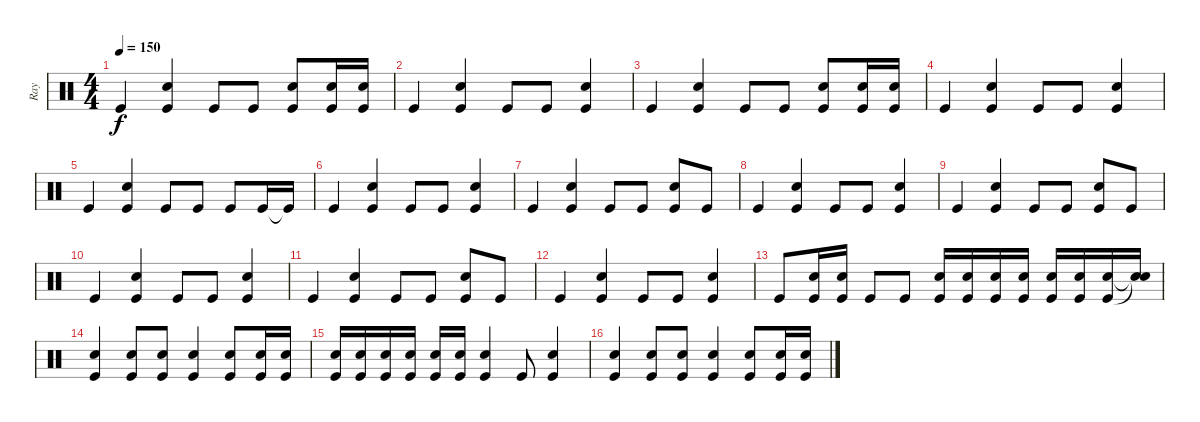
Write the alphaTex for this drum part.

\track ("Ray" "Ray") {instrument percussion}
\staff {score}
\articulation defaults
\ts (4 4)
\tempo 150
\clef neutral
\ks c "Kick (hit)".4{dy f}
("Kick (hit)" "Electric Snare (hit)").4 "Kick (hit)".8 "Kick (hit)".8 ("Kick (hit)" "Electric Snare (hit)").8 ("Kick (hit)" "Electric Snare (hit)").16 ("Kick (hit)" "Electric Snare (hit)").16 |
"Kick (hit)".4 ("Kick (hit)" "Electric Snare (hit)").4 "Kick (hit)".8 "Kick (hit)".8 ("Kick (hit)" "Electric Snare (hit)").4 |
"Kick (hit)".4 ("Kick (hit)" "Electric Snare (hit)").4 "Kick (hit)".8 "Kick (hit)".8 ("Kick (hit)" "Electric Snare (hit)").8 ("Kick (hit)" "Electric Snare (hit)").16 ("Kick (hit)" "Electric Snare (hit)").16 |
"Kick (hit)".4 ("Kick (hit)" "Electric Snare (hit)").4 "Kick (hit)".8 "Kick (hit)".8 ("Kick (hit)" "Electric Snare (hit)").4 |
"Kick (hit)".4 ("Kick (hit)" "Electric Snare (hit)").4 "Kick (hit)".8 "Kick (hit)".8 "Kick (hit)".8 "Kick (hit)".16 "Kick (hit)"{t}.16 |
"Kick (hit)".4 ("Kick (hit)" "Electric Snare (hit)").4 "Kick (hit)".8 "Kick (hit)".8 ("Kick (hit)" "Electric Snare (hit)").4 |
"Kick (hit)".4 ("Kick (hit)" "Electric Snare (hit)").4 "Kick (hit)".8 "Kick (hit)".8 ("Kick (hit)" "Electric Snare (hit)").8 "Kick (hit)".8 |
"Kick (hit)".4 ("Kick (hit)" "Electric Snare (hit)").4 "Kick (hit)".8 "Kick (hit)".8 ("Kick (hit)" "Electric Snare (hit)").4 |
"Kick (hit)".4 ("Kick (hit)" "Electric Snare (hit)").4 "Kick (hit)".8 "Kick (hit)".8 ("Kick (hit)" "Electric Snare (hit)").8 "Kick (hit)".8 |
"Kick (hit)".4 ("Kick (hit)" "Electric Snare (hit)").4 "Kick (hit)".8 "Kick (hit)".8 ("Kick (hit)" "Electric Snare (hit)").4 |
"Kick (hit)".4 ("Kick (hit)" "Electric Snare (hit)").4 "Kick (hit)".8 "Kick (hit)".8 ("Kick (hit)" "Electric Snare (hit)").8 "Kick (hit)".8 |
"Kick (hit)".4 ("Kick (hit)" "Electric Snare (hit)").4 "Kick (hit)".8 "Kick (hit)".8 ("Kick (hit)" "Electric Snare (hit)").4 |
"Kick (hit)".8 ("Kick (hit)" "Electric Snare (hit)").16 ("Kick (hit)" "Electric Snare (hit)").16 "Kick (hit)".8 "Kick (hit)".8 ("Kick (hit)" "Electric Snare (hit)").16 ("Kick (hit)" "Electric Snare (hit)").16 ("Kick (hit)" "Electric Snare (hit)").16 ("Kick (hit)" "Electric Snare (hit)").16 ("Kick (hit)" "Electric Snare (hit)").16 ("Kick (hit)" "Electric Snare (hit)").16 ("Kick (hit)" "Electric Snare (hit)").16 ("Snare (hit)"{t} "Snare (hit)"{t}).16 |
("Kick (hit)" "Electric Snare (hit)").4 ("Kick (hit)" "Electric Snare (hit)").8 ("Kick (hit)" "Electric Snare (hit)").8 ("Kick (hit)" "Electric Snare (hit)").4 ("Kick (hit)" "Electric Snare (hit)").8 ("Kick (hit)" "Electric Snare (hit)").16 ("Kick (hit)" "Electric Snare (hit)").16 |
("Kick (hit)" "Electric Snare (hit)").16 ("Kick (hit)" "Electric Snare (hit)").16 ("Kick (hit)" "Electric Snare (hit)").16 ("Kick (hit)" "Electric Snare (hit)").16 ("Kick (hit)" "Electric Snare (hit)").16 ("Kick (hit)" "Electric Snare (hit)").16 ("Kick (hit)" "Electric Snare (hit)").4 "Kick (hit)".8 ("Kick (hit)" "Electric Snare (hit)").4 |
("Kick (hit)" "Electric Snare (hit)").4 ("Kick (hit)" "Electric Snare (hit)").8 ("Kick (hit)" "Electric Snare (hit)").8 ("Kick (hit)" "Electric Snare (hit)").4 ("Kick (hit)" "Electric Snare (hit)").8 ("Kick (hit)" "Electric Snare (hit)").16 ("Kick (hit)" "Electric Snare (hit)").16
